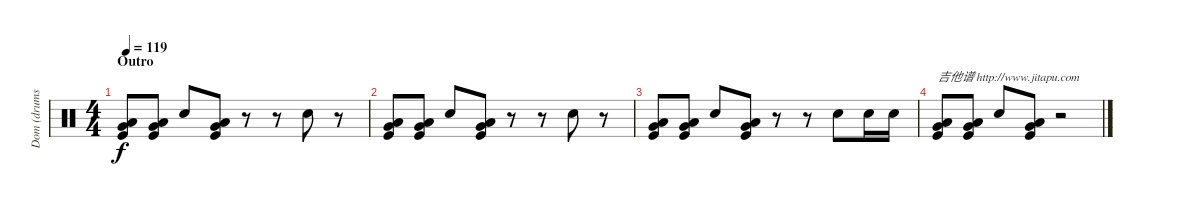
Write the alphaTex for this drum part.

\track ("Dom (drums)" "Dom (drums") {instrument percussion}
\staff {score}
\articulation defaults
\ts (4 4)
\section ("" "Outro")
\tempo 119
\clef neutral
\ks c
("Low Tom (hit)" "Very Low Tom (hit)" "Kick (hit)").8{dy f} ("Low Tom (hit)" "Very Low Tom (hit)" "Kick (hit)").8 "Snare (hit) 2".8 ("Low Tom (hit)" "Very Low Tom (hit)" "Kick (hit)").8 r.8 r.8 "Snare (hit) 2".8 r.8 |
("Low Tom (hit)" "Very Low Tom (hit)" "Kick (hit)").8 ("Low Tom (hit)" "Very Low Tom (hit)" "Kick (hit)").8 "Snare (hit) 2".8 ("Low Tom (hit)" "Very Low Tom (hit)" "Kick (hit)").8 r.8 r.8 "Snare (hit) 2".8 r.8 |
("Low Tom (hit)" "Very Low Tom (hit)" "Kick (hit)").8 ("Low Tom (hit)" "Very Low Tom (hit)" "Kick (hit)").8 "Snare (hit) 2".8 ("Low Tom (hit)" "Very Low Tom (hit)" "Kick (hit)").8 r.8 r.8 "Snare (hit) 2".8 "Snare (hit) 2".16 "Snare (hit) 2".16 |
("Low Tom (hit)" "Very Low Tom (hit)" "Kick (hit)").8{txt "吉他谱 http://www.jitapu.com"} ("Low Tom (hit)" "Very Low Tom (hit)" "Kick (hit)").8 "Snare (hit) 2".8 ("Low Tom (hit)" "Very Low Tom (hit)" "Kick (hit)").8 r.2
